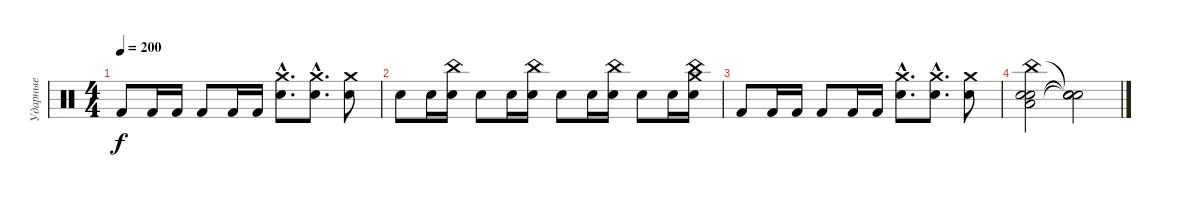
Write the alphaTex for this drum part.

\track ("Ударные" "Ударные") {instrument percussion}
\staff {score}
\articulation defaults
\ts (4 4)
\tempo 200
\clef neutral
\ks c "Kick (hit) 2".8{dy f} "Kick (hit) 2".16 "Kick (hit) 2".16 "Kick (hit) 2".8 "Kick (hit) 2".16 "Kick (hit) 2".16
("Snare (hit) 2"{hac} "Crash medium (hit)"{hac}).8{d} ("Snare (hit) 2"{hac} "Crash medium (hit)"{hac}).8{d} ("Snare (hit) 2" "Crash medium (hit)").8 |
"Snare (hit) 2".8 "Snare (hit) 2".16 ("Snare (hit) 2" "China (hit)").16 "Snare (hit) 2".8 "Snare (hit) 2".16 ("Snare (hit) 2" "China (hit)").16 "Snare (hit) 2".8 "Snare (hit) 2".16 ("Snare (hit) 2" "China (hit)").16 "Snare (hit) 2".8 "Snare (hit) 2".16 ("Snare (hit) 2" "Crash medium (hit)" "China (hit)").16 |
"Kick (hit) 2".8 "Kick (hit) 2".16 "Kick (hit) 2".16 "Kick (hit) 2".8 "Kick (hit) 2".16 "Kick (hit) 2".16 ("Snare (hit) 2"{hac} "Crash medium (hit)"{hac}).8{d} ("Snare (hit) 2"{hac} "Crash medium (hit)"{hac}).8{d} ("Snare (hit) 2" "Crash medium (hit)").8 |
("Electric Snare (hit)" "Snare (hit) 2" "Low Floor Tom (hit)" "China (hit)").2 ("Snare (hit)"{t} "Snare (hit)"{t} "Snare (hit)"{t} "Snare (hit)"{t}).2
